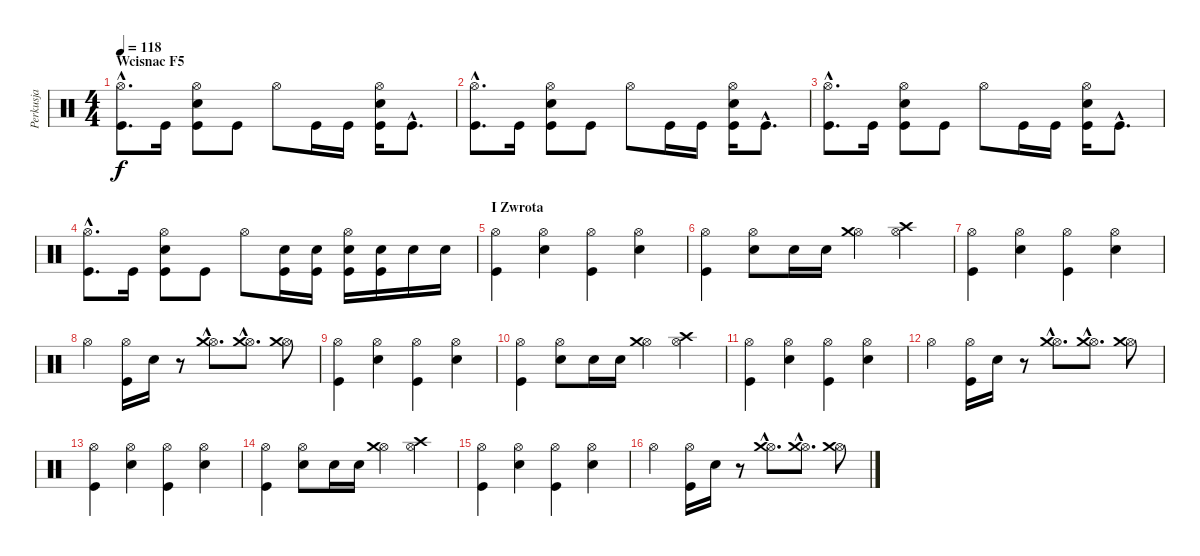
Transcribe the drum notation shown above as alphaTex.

\track ("Perkusja" "Perkusja") {instrument percussion}
\staff {score}
\articulation defaults
\ts (4 4)
\section ("" "Wcisnac F5")
\tempo 118
\clef neutral
\ks c
("Hi-Hat (open)"{hac} "Kick (hit)"{hac}).8{d dy f} "Kick (hit)".16 ("Hi-Hat (open)" "Electric Snare (hit)" "Kick (hit)").8 "Kick (hit)".8 "Hi-Hat (open)".8 "Kick (hit)".16 "Kick (hit)".16 ("Hi-Hat (open)" "Electric Snare (hit)" "Kick (hit)").16 "Kick (hit)"{hac}.8{d} |
("Hi-Hat (open)"{hac} "Kick (hit)"{hac}).8{d} "Kick (hit)".16 ("Hi-Hat (open)" "Electric Snare (hit)" "Kick (hit)").8 "Kick (hit)".8 "Hi-Hat (open)".8 "Kick (hit)".16 "Kick (hit)".16 ("Hi-Hat (open)" "Electric Snare (hit)" "Kick (hit)").16 "Kick (hit)"{hac}.8{d} |
("Hi-Hat (open)"{hac} "Kick (hit)"{hac}).8{d} "Kick (hit)".16 ("Hi-Hat (open)" "Electric Snare (hit)" "Kick (hit)").8 "Kick (hit)".8 "Hi-Hat (open)".8 "Kick (hit)".16 "Kick (hit)".16 ("Hi-Hat (open)" "Electric Snare (hit)" "Kick (hit)").16 "Kick (hit)"{hac}.8{d} |
("Hi-Hat (open)"{hac} "Kick (hit)"{hac}).8{d} "Kick (hit)".16 ("Hi-Hat (open)" "Electric Snare (hit)" "Kick (hit)").8 "Kick (hit)".8 "Hi-Hat (open)".8 ("Electric Snare (hit)" "Kick (hit)").16 ("Electric Snare (hit)" "Kick (hit)").16 ("Hi-Hat (open)" "Electric Snare (hit)" "Kick (hit)").16 ("Electric Snare (hit)" "Kick (hit)").16 "Electric Snare (hit)".16 "Electric Snare (hit)".16 |
\section ("" "I Zwrota")
("Hi-Hat (open)" "Kick (hit)").4 ("Hi-Hat (open)" "Electric Snare (hit)").4 ("Hi-Hat (open)" "Kick (hit)").4 ("Hi-Hat (open)" "Electric Snare (hit)").4 |
("Hi-Hat (open)" "Kick (hit)").4 ("Hi-Hat (open)" "Electric Snare (hit)").8 "Electric Snare (hit)".16 "Electric Snare (hit)".16 ("Hi-Hat (open)" "Crash medium (hit)").4 ("Hi-Hat (open)" "Crash high (hit)").4 |
("Hi-Hat (open)" "Kick (hit)").4 ("Hi-Hat (open)" "Electric Snare (hit)").4 ("Hi-Hat (open)" "Kick (hit)").4 ("Hi-Hat (open)" "Electric Snare (hit)").4 |
"Hi-Hat (open)".4 ("Hi-Hat (open)" "Kick (hit)").16 "Electric Snare (hit)".16 r.8 ("Hi-Hat (open)"{hac} "Crash medium (hit)"{hac}).8{d} ("Hi-Hat (open)"{hac} "Crash medium (hit)"{hac}).8{d} ("Hi-Hat (open)" "Crash medium (hit)").8 |
("Hi-Hat (open)" "Kick (hit)").4 ("Hi-Hat (open)" "Electric Snare (hit)").4 ("Hi-Hat (open)" "Kick (hit)").4 ("Hi-Hat (open)" "Electric Snare (hit)").4 |
("Hi-Hat (open)" "Kick (hit)").4 ("Hi-Hat (open)" "Electric Snare (hit)").8 "Electric Snare (hit)".16 "Electric Snare (hit)".16 ("Hi-Hat (open)" "Crash medium (hit)").4 ("Hi-Hat (open)" "Crash high (hit)").4 |
("Hi-Hat (open)" "Kick (hit)").4 ("Hi-Hat (open)" "Electric Snare (hit)").4 ("Hi-Hat (open)" "Kick (hit)").4 ("Hi-Hat (open)" "Electric Snare (hit)").4 |
"Hi-Hat (open)".4 ("Hi-Hat (open)" "Kick (hit)").16 "Electric Snare (hit)".16 r.8 ("Hi-Hat (open)"{hac} "Crash medium (hit)"{hac}).8{d} ("Hi-Hat (open)"{hac} "Crash medium (hit)"{hac}).8{d} ("Hi-Hat (open)" "Crash medium (hit)").8 |
("Hi-Hat (open)" "Kick (hit)").4 ("Hi-Hat (open)" "Electric Snare (hit)").4 ("Hi-Hat (open)" "Kick (hit)").4 ("Hi-Hat (open)" "Electric Snare (hit)").4 |
("Hi-Hat (open)" "Kick (hit)").4 ("Hi-Hat (open)" "Electric Snare (hit)").8 "Electric Snare (hit)".16 "Electric Snare (hit)".16 ("Hi-Hat (open)" "Crash medium (hit)").4 ("Hi-Hat (open)" "Crash high (hit)").4 |
("Hi-Hat (open)" "Kick (hit)").4 ("Hi-Hat (open)" "Electric Snare (hit)").4 ("Hi-Hat (open)" "Kick (hit)").4 ("Hi-Hat (open)" "Electric Snare (hit)").4 |
"Hi-Hat (open)".4 ("Hi-Hat (open)" "Kick (hit)").16 "Electric Snare (hit)".16 r.8 ("Hi-Hat (open)"{hac} "Crash medium (hit)"{hac}).8{d} ("Hi-Hat (open)"{hac} "Crash medium (hit)"{hac}).8{d} ("Hi-Hat (open)" "Crash medium (hit)").8
